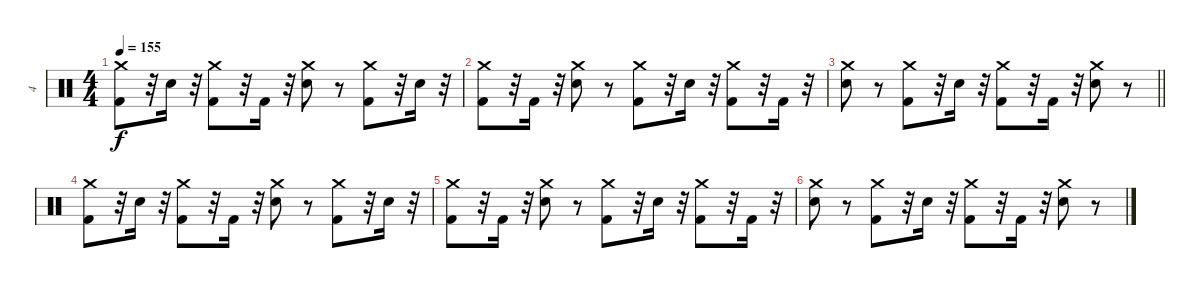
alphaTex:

\track ("4" "4") {instrument percussion}
\staff {score}
\articulation defaults
\ts (4 4)
\tempo 155
\clef neutral
\ks c
("Crash medium (hit)" "Kick (hit) 2").8{dy f} r.32 "Electric Snare (hit)".16 r.32 ("Crash medium (hit)" "Kick (hit) 2").8 r.32 "Kick (hit) 2".16 r.32 ("Crash medium (hit)" "Electric Snare (hit)").8 r.8 ("Crash medium (hit)" "Kick (hit) 2").8 r.32 "Electric Snare (hit)".16 r.32 |
("Crash medium (hit)" "Kick (hit) 2").8 r.32 "Kick (hit) 2".16 r.32 ("Crash medium (hit)" "Electric Snare (hit)").8 r.8 ("Crash medium (hit)" "Kick (hit) 2").8 r.32 "Electric Snare (hit)".16 r.32 ("Crash medium (hit)" "Kick (hit) 2").8 r.32 "Kick (hit) 2".16 r.32 |
\barLineRight lightlight
("Crash medium (hit)" "Electric Snare (hit)").8 r.8 ("Crash medium (hit)" "Kick (hit) 2").8 r.32 "Electric Snare (hit)".16 r.32 ("Crash medium (hit)" "Kick (hit) 2").8 r.32 "Kick (hit) 2".16 r.32 ("Crash medium (hit)" "Electric Snare (hit)").8 r.8 |
\section ("" "")
("Crash medium (hit)" "Kick (hit) 2").8{volume 0} r.32 "Electric Snare (hit)".16 r.32 ("Crash medium (hit)" "Kick (hit) 2").8 r.32 "Kick (hit) 2".16 r.32 ("Crash medium (hit)" "Electric Snare (hit)").8 r.8 ("Crash medium (hit)" "Kick (hit) 2").8 r.32 "Electric Snare (hit)".16 r.32 |
("Crash medium (hit)" "Kick (hit) 2").8 r.32 "Kick (hit) 2".16 r.32 ("Crash medium (hit)" "Electric Snare (hit)").8 r.8 ("Crash medium (hit)" "Kick (hit) 2").8 r.32 "Electric Snare (hit)".16 r.32 ("Crash medium (hit)" "Kick (hit) 2").8 r.32 "Kick (hit) 2".16 r.32 |
("Crash medium (hit)" "Electric Snare (hit)").8 r.8 ("Crash medium (hit)" "Kick (hit) 2").8 r.32 "Electric Snare (hit)".16 r.32 ("Crash medium (hit)" "Kick (hit) 2").8 r.32 "Kick (hit) 2".16 r.32 ("Crash medium (hit)" "Electric Snare (hit)").8 r.8
